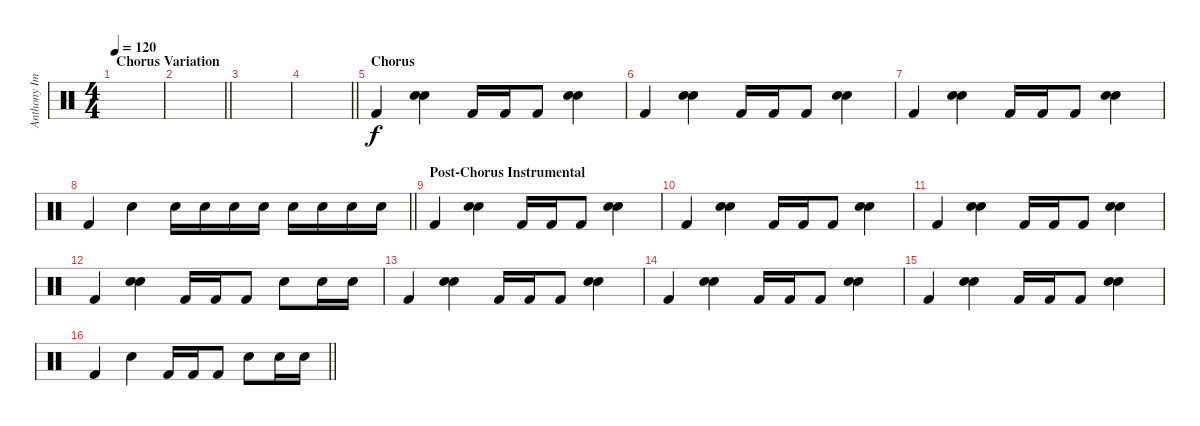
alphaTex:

\track ("Anthony Improgo (Percussion)" "Anthony Im") {instrument percussion}
\staff {score}
\articulation defaults
\ts (4 4)
\section ("" "Chorus Variation")
\tempo 120
\clef neutral
\ks c
|
\barLineRight lightlight
|
|
\barLineRight lightlight
|
\section ("" "Chorus")
"Kick (hit) 2".4 ("Snare (hit) 2" "Snare (hit) 2").4 "Kick (hit) 2".16 "Kick (hit) 2".16 "Kick (hit) 2".8 ("Snare (hit) 2" "Snare (hit) 2").4 |
"Kick (hit) 2".4 ("Snare (hit) 2" "Snare (hit) 2").4 "Kick (hit) 2".16 "Kick (hit) 2".16 "Kick (hit) 2".8 ("Snare (hit) 2" "Snare (hit) 2").4 |
"Kick (hit) 2".4 ("Snare (hit) 2" "Snare (hit) 2").4 "Kick (hit) 2".16 "Kick (hit) 2".16 "Kick (hit) 2".8 ("Snare (hit) 2" "Snare (hit) 2").4 |
\barLineRight lightlight "Kick (hit) 2".4 "Snare (hit) 2".4 "Snare (hit) 2".16 "Snare (hit) 2".16 "Snare (hit) 2".16 "Snare (hit) 2".16 "Snare (hit) 2".16 "Snare (hit) 2".16 "Snare (hit) 2".16 "Snare (hit) 2".16
|
\section ("" "Post-Chorus Instrumental")
"Kick (hit) 2".4 ("Snare (hit) 2" "Snare (hit) 2").4 "Kick (hit) 2".16 "Kick (hit) 2".16 "Kick (hit) 2".8 ("Snare (hit) 2" "Snare (hit) 2").4 |
"Kick (hit) 2".4 ("Snare (hit) 2" "Snare (hit) 2").4 "Kick (hit) 2".16 "Kick (hit) 2".16 "Kick (hit) 2".8 ("Snare (hit) 2" "Snare (hit) 2").4 |
"Kick (hit) 2".4 ("Snare (hit) 2" "Snare (hit) 2").4 "Kick (hit) 2".16 "Kick (hit) 2".16 "Kick (hit) 2".8 ("Snare (hit) 2" "Snare (hit) 2").4 |
"Kick (hit) 2".4 ("Snare (hit) 2" "Snare (hit) 2").4 "Kick (hit) 2".16 "Kick (hit) 2".16 "Kick (hit) 2".8 "Snare (hit) 2".8 "Snare (hit) 2".16 "Snare (hit) 2".16 |
"Kick (hit) 2".4 ("Snare (hit) 2" "Snare (hit) 2").4 "Kick (hit) 2".16 "Kick (hit) 2".16 "Kick (hit) 2".8 ("Snare (hit) 2" "Snare (hit) 2").4 |
"Kick (hit) 2".4 ("Snare (hit) 2" "Snare (hit) 2").4 "Kick (hit) 2".16 "Kick (hit) 2".16 "Kick (hit) 2".8 ("Snare (hit) 2" "Snare (hit) 2").4 |
"Kick (hit) 2".4 ("Snare (hit) 2" "Snare (hit) 2").4 "Kick (hit) 2".16 "Kick (hit) 2".16 "Kick (hit) 2".8 ("Snare (hit) 2" "Snare (hit) 2").4 |
\barLineRight lightlight "Kick (hit) 2".4 "Snare (hit) 2".4 "Kick (hit) 2".16 "Kick (hit) 2".16 "Kick (hit) 2".8 "Snare (hit) 2".8 "Snare (hit) 2".16 "Snare (hit) 2".16
